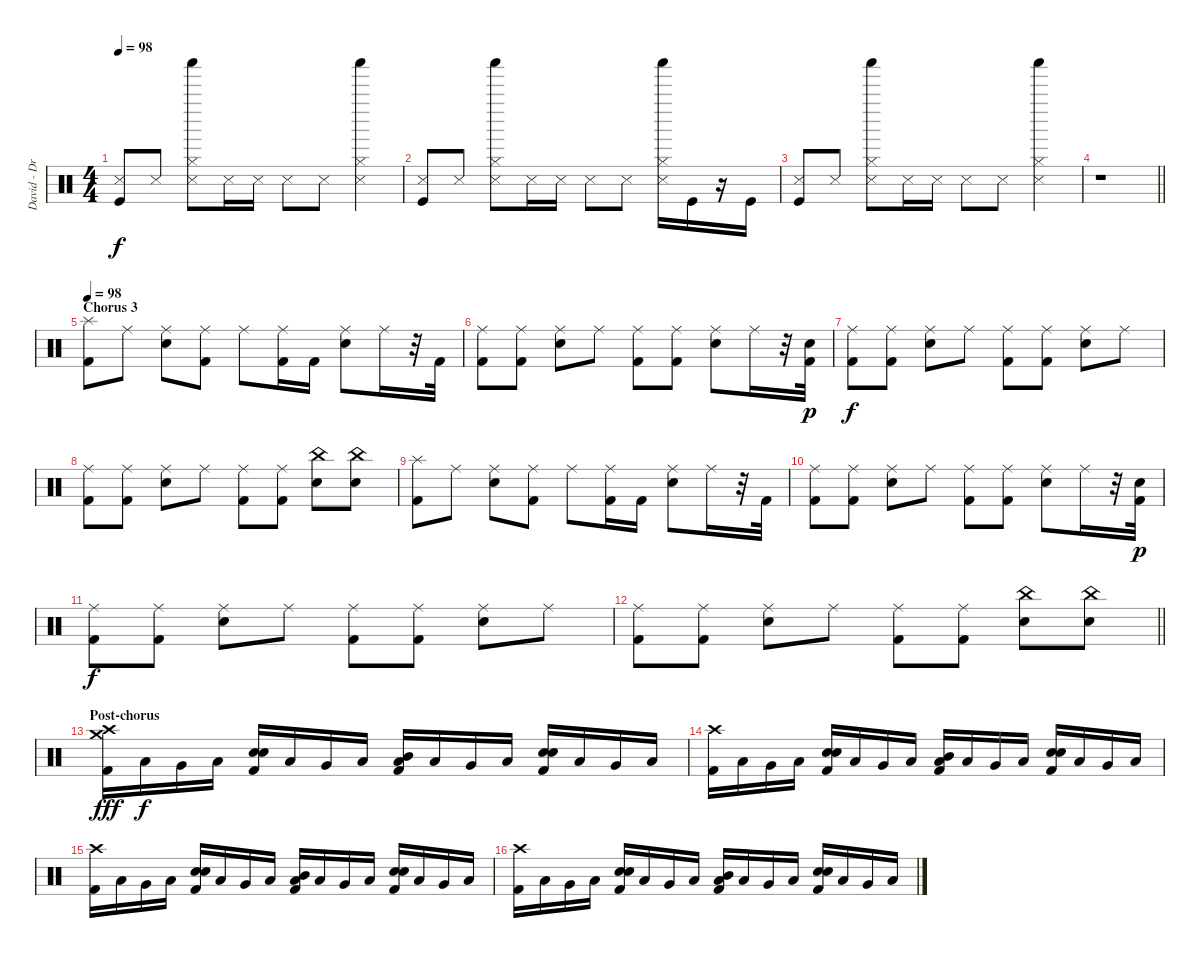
\track ("David - Drums" "David - Dr") {instrument percussion}
\staff {score}
\articulation defaults
\ts (4 4)
\tempo 98
\clef neutral
\ks c
("Kick (hit)" "Metronome (hit)").8{dy f} "Metronome (hit)".8 ("Shaker (hit)" "Hi-Hat (closed)" "Metronome (hit)").8 "Metronome (hit)".16 "Metronome (hit)".16 "Metronome (hit)".8 "Metronome (hit)".8 ("Shaker (hit)" "Hi-Hat (closed)" "Metronome (hit)").4 |
("Kick (hit)" "Metronome (hit)").8 "Metronome (hit)".8 ("Shaker (hit)" "Hi-Hat (closed)" "Metronome (hit)").8 "Metronome (hit)".16 "Metronome (hit)".16 "Metronome (hit)".8 "Metronome (hit)".8 ("Shaker (hit)" "Hi-Hat (closed)" "Metronome (hit)").16 "Kick (hit)".16 r.16 "Kick (hit)".16 |
("Kick (hit)" "Metronome (hit)").8 "Metronome (hit)".8 ("Shaker (hit)" "Hi-Hat (closed)" "Metronome (hit)").8 "Metronome (hit)".16 "Metronome (hit)".16 "Metronome (hit)".8 "Metronome (hit)".8 ("Shaker (hit)" "Hi-Hat (closed)" "Metronome (hit)").4 |
\barLineRight lightlight
r.1 |
\section ("" "Chorus 3")
\tempo 98
("Splash (hit)" "Kick (hit) 2").8 "Ride (middle)".8 ("Ride (middle)" "Snare (hit) 2").8 ("Ride (middle)" "Kick (hit) 2").8 "Ride (middle)".8 ("Ride (middle)" "Kick (hit) 2").16 "Kick (hit) 2".16 ("Ride (middle)" "Snare (hit) 2").8 "Ride (middle)".16 r.32 "Kick (hit) 2".32 |
("Ride (middle)" "Kick (hit) 2").8 ("Ride (middle)" "Kick (hit) 2").8 ("Ride (middle)" "Snare (hit) 2").8 "Ride (middle)".8 ("Ride (middle)" "Kick (hit) 2").8 ("Ride (middle)" "Kick (hit) 2").8 ("Ride (middle)" "Snare (hit) 2").8 "Ride (middle)".16 r.32 ("Snare (hit) 2" "Kick (hit) 2").32{dy p} |
("Ride (middle)" "Kick (hit) 2").8{dy f} ("Ride (middle)" "Kick (hit) 2").8 ("Ride (middle)" "Snare (hit) 2").8 "Ride (middle)".8 ("Ride (middle)" "Kick (hit) 2").8 ("Ride (middle)" "Kick (hit) 2").8 ("Ride (middle)" "Snare (hit) 2").8 "Ride (middle)".8 |
("Ride (middle)" "Kick (hit) 2").8 ("Ride (middle)" "Kick (hit) 2").8 ("Ride (middle)" "Snare (hit) 2").8 "Ride (middle)".8 ("Ride (middle)" "Kick (hit) 2").8 ("Ride (middle)" "Kick (hit) 2").8 ("China (hit)" "Snare (hit) 2").8 ("China (hit)" "Snare (hit) 2").8 |
("Splash (hit)" "Kick (hit) 2").8 "Ride (middle)".8 ("Ride (middle)" "Snare (hit) 2").8 ("Ride (middle)" "Kick (hit) 2").8 "Ride (middle)".8 ("Ride (middle)" "Kick (hit) 2").16 "Kick (hit) 2".16 ("Ride (middle)" "Snare (hit) 2").8 "Ride (middle)".16 r.32 "Kick (hit) 2".32 |
("Ride (middle)" "Kick (hit) 2").8 ("Ride (middle)" "Kick (hit) 2").8 ("Ride (middle)" "Snare (hit) 2").8 "Ride (middle)".8 ("Ride (middle)" "Kick (hit) 2").8 ("Ride (middle)" "Kick (hit) 2").8 ("Ride (middle)" "Snare (hit) 2").8 "Ride (middle)".16 r.32 ("Snare (hit) 2" "Kick (hit) 2").32{dy p} |
("Ride (middle)" "Kick (hit) 2").8{dy f} ("Ride (middle)" "Kick (hit) 2").8 ("Ride (middle)" "Snare (hit) 2").8 "Ride (middle)".8 ("Ride (middle)" "Kick (hit) 2").8 ("Ride (middle)" "Kick (hit) 2").8 ("Ride (middle)" "Snare (hit) 2").8 "Ride (middle)".8 |
\barLineRight lightlight
("Ride (middle)" "Kick (hit) 2").8 ("Ride (middle)" "Kick (hit) 2").8 ("Ride (middle)" "Snare (hit) 2").8 "Ride (middle)".8 ("Ride (middle)" "Kick (hit) 2").8 ("Ride (middle)" "Kick (hit) 2").8 ("China (hit)" "Snare (hit) 2").8 ("China (hit)" "Snare (hit) 2").8 |
\section ("" "Post-chorus")
("Crash medium (hit)" "Crash high (hit)" "Kick (hit) 2").16{dy fff} "Low Tom (hit)".16{dy f} "Very Low Tom (hit)".16 "Low Floor Tom (hit)".16 ("Electric Snare (hit)" "Electric Snare (hit)" "Kick (hit) 2").16{bd 240} "Low Tom (hit)".16 "Very Low Tom (hit)".16 "Low Floor Tom (hit)".16 ("Mid Tom (hit)" "Low Tom (hit)" "Kick (hit) 2").16{bd 240} "Low Tom (hit)".16 "Very Low Tom (hit)".16 "Low Floor Tom (hit)".16 ("Electric Snare (hit)" "Electric Snare (hit)" "Kick (hit) 2").16{bd 240} "Low Tom (hit)".16 "Very Low Tom (hit)".16 "Low Floor Tom (hit)".16 |
("Crash high (hit)" "Kick (hit) 2").16 "Low Tom (hit)".16 "Very Low Tom (hit)".16 "Low Floor Tom (hit)".16 ("Electric Snare (hit)" "Electric Snare (hit)" "Kick (hit) 2").16{bd 240} "Low Tom (hit)".16 "Very Low Tom (hit)".16 "Low Floor Tom (hit)".16 ("Mid Tom (hit)" "Low Tom (hit)" "Kick (hit) 2").16{bd 240} "Low Tom (hit)".16 "Very Low Tom (hit)".16 "Low Floor Tom (hit)".16 ("Electric Snare (hit)" "Electric Snare (hit)" "Kick (hit) 2").16{bd 240} "Low Tom (hit)".16 "Very Low Tom (hit)".16 "Low Floor Tom (hit)".16 |
("Crash high (hit)" "Kick (hit) 2").16 "Low Tom (hit)".16 "Very Low Tom (hit)".16 "Low Floor Tom (hit)".16 ("Electric Snare (hit)" "Electric Snare (hit)" "Kick (hit) 2").16{bd 240} "Low Tom (hit)".16 "Very Low Tom (hit)".16 "Low Floor Tom (hit)".16 ("Mid Tom (hit)" "Low Tom (hit)" "Kick (hit) 2").16{bd 240} "Low Tom (hit)".16 "Very Low Tom (hit)".16 "Low Floor Tom (hit)".16 ("Electric Snare (hit)" "Electric Snare (hit)" "Kick (hit) 2").16{bd 240} "Low Tom (hit)".16 "Very Low Tom (hit)".16 "Low Floor Tom (hit)".16 |
("Crash high (hit)" "Kick (hit) 2").16 "Low Tom (hit)".16 "Very Low Tom (hit)".16 "Low Floor Tom (hit)".16 ("Electric Snare (hit)" "Electric Snare (hit)" "Kick (hit) 2").16{bd 240} "Low Tom (hit)".16 "Very Low Tom (hit)".16 "Low Floor Tom (hit)".16 ("Mid Tom (hit)" "Low Tom (hit)" "Kick (hit) 2").16{bd 240} "Low Tom (hit)".16 "Very Low Tom (hit)".16 "Low Floor Tom (hit)".16 ("Electric Snare (hit)" "Electric Snare (hit)" "Kick (hit) 2").16{bd 240} "Low Tom (hit)".16 "Very Low Tom (hit)".16 "Low Floor Tom (hit)".16
